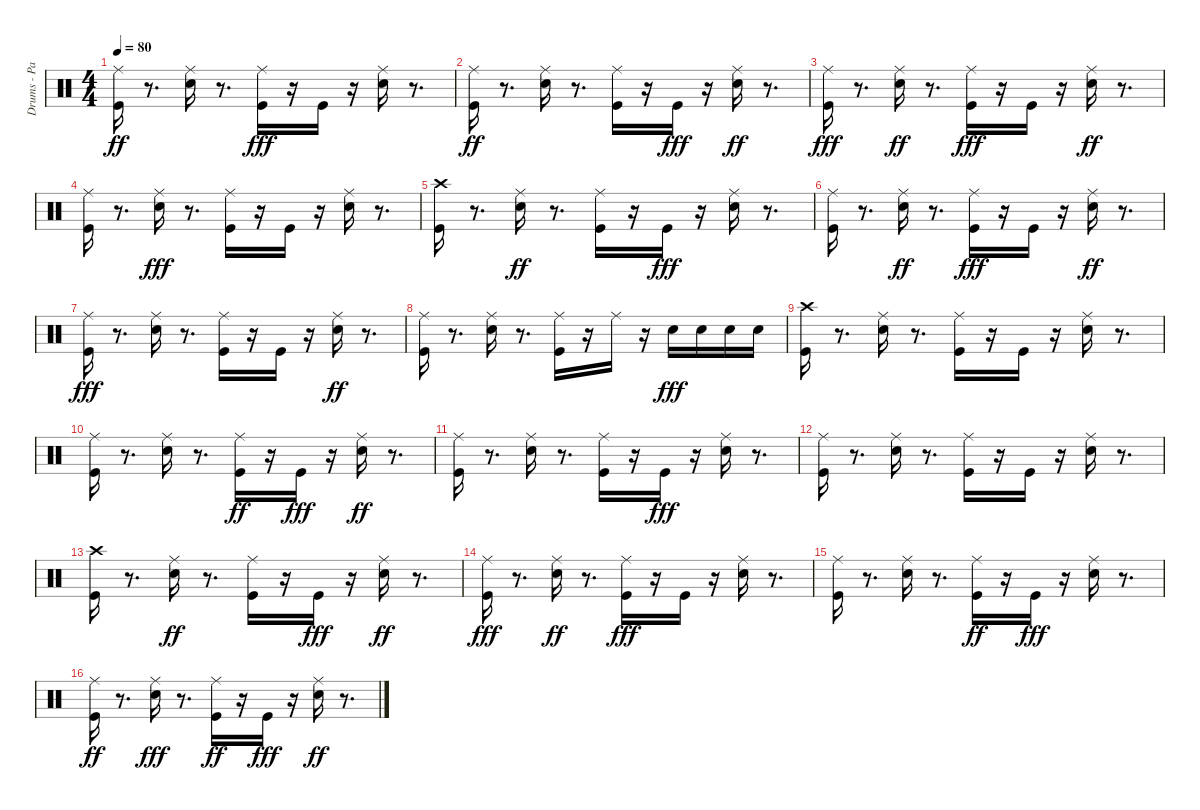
\track ("Drums - Paice" "Drums - Pa") {instrument percussion}
\staff {score}
\articulation defaults
\ts (4 4)
\tempo 80
\clef neutral
\ks c
("Kick (hit)" "Ride (middle)").16{dy ff} r.8{d} ("Snare (hit) 2" "Ride (middle)").16 r.8{d} ("Ride (middle)" "Kick (hit)").16{dy fff} r.16 "Kick (hit)".16 r.16 ("Ride (middle)" "Snare (hit) 2").16 r.8{d} |
("Kick (hit)" "Ride (middle)").16{dy ff} r.8{d} ("Snare (hit) 2" "Ride (middle)").16 r.8{d} ("Kick (hit)" "Ride (middle)").16 r.16 "Kick (hit)".16{dy fff} r.16 ("Snare (hit) 2" "Ride (middle)").16{dy ff} r.8{d} |
("Ride (middle)" "Kick (hit)").16{dy fff} r.8{d} ("Snare (hit) 2" "Ride (middle)").16{dy ff} r.8{d} ("Ride (middle)" "Kick (hit)").16{dy fff} r.16 "Kick (hit)".16 r.16 ("Snare (hit) 2" "Ride (middle)").16{dy ff} r.8{d} |
("Kick (hit)" "Ride (middle)").16 r.8{d} ("Ride (middle)" "Snare (hit) 2").16{dy fff} r.8{d} ("Ride (middle)" "Kick (hit)").16 r.16 "Kick (hit)".16 r.16 ("Ride (middle)" "Snare (hit) 2").16 r.8{d} |
("Kick (hit)" "Crash high (hit)").16 r.8{d} ("Snare (hit) 2" "Ride (middle)").16{dy ff} r.8{d} ("Kick (hit)" "Ride (middle)").16 r.16 "Kick (hit)".16{dy fff} r.16 ("Ride (middle)" "Snare (hit) 2").16 r.8{d} |
("Ride (middle)" "Kick (hit)").16 r.8{d} ("Snare (hit) 2" "Ride (middle)").16{dy ff} r.8{d} ("Ride (middle)" "Kick (hit)").16{dy fff} r.16 "Kick (hit)".16 r.16 ("Snare (hit) 2" "Ride (middle)").16{dy ff} r.8{d} |
("Ride (middle)" "Kick (hit)").16{dy fff} r.8{d} ("Ride (middle)" "Snare (hit) 2").16 r.8{d} ("Ride (middle)" "Kick (hit)").16 r.16 "Kick (hit)".16 r.16 ("Snare (hit) 2" "Ride (middle)").16{dy ff} r.8{d} |
("Kick (hit)" "Ride (middle)").16 r.8{d} ("Snare (hit) 2" "Ride (middle)").16 r.8{d} ("Kick (hit)" "Ride (middle)").16 r.16 "Ride (middle)".16 r.16 "Snare (hit) 2".16{dy fff} "Snare (hit) 2".16 "Snare (hit) 2".16 "Snare (hit) 2".16 |
("Crash high (hit)" "Kick (hit)").16 r.8{d} ("Ride (middle)" "Snare (hit) 2").16 r.8{d} ("Ride (middle)" "Kick (hit)").16 r.16 "Kick (hit)".16 r.16 ("Ride (middle)" "Snare (hit) 2").16 r.8{d} |
("Ride (middle)" "Kick (hit)").16 r.8{d} ("Ride (middle)" "Snare (hit) 2").16 r.8{d} ("Kick (hit)" "Ride (middle)").16{dy ff} r.16 "Kick (hit)".16{dy fff} r.16 ("Snare (hit) 2" "Ride (middle)").16{dy ff} r.8{d} |
("Kick (hit)" "Ride (middle)").16 r.8{d} ("Snare (hit) 2" "Ride (middle)").16 r.8{d} ("Kick (hit)" "Ride (middle)").16 r.16 "Kick (hit)".16{dy fff} r.16 ("Ride (middle)" "Snare (hit) 2").16 r.8{d} |
("Ride (middle)" "Kick (hit)").16 r.8{d} ("Ride (middle)" "Snare (hit) 2").16 r.8{d} ("Ride (middle)" "Kick (hit)").16 r.16 "Kick (hit)".16 r.16 ("Ride (middle)" "Snare (hit) 2").16 r.8{d} |
("Crash high (hit)" "Kick (hit)").16 r.8{d} ("Snare (hit) 2" "Ride (middle)").16{dy ff} r.8{d} ("Kick (hit)" "Ride (middle)").16 r.16 "Kick (hit)".16{dy fff} r.16 ("Snare (hit) 2" "Ride (middle)").16{dy ff} r.8{d} |
("Ride (middle)" "Kick (hit)").16{dy fff} r.8{d} ("Snare (hit) 2" "Ride (middle)").16{dy ff} r.8{d} ("Ride (middle)" "Kick (hit)").16{dy fff} r.16 "Kick (hit)".16 r.16 ("Ride (middle)" "Snare (hit) 2").16 r.8{d} |
("Ride (middle)" "Kick (hit)").16 r.8{d} ("Ride (middle)" "Snare (hit) 2").16 r.8{d} ("Kick (hit)" "Ride (middle)").16{dy ff} r.16 "Kick (hit)".16{dy fff} r.16 ("Ride (middle)" "Snare (hit) 2").16 r.8{d} |
("Kick (hit)" "Ride (middle)").16{dy ff} r.8{d} ("Ride (middle)" "Snare (hit) 2").16{dy fff} r.8{d} ("Kick (hit)" "Ride (middle)").16{dy ff} r.16 "Kick (hit)".16{dy fff} r.16 ("Snare (hit) 2" "Ride (middle)").16{dy ff} r.8{d}
